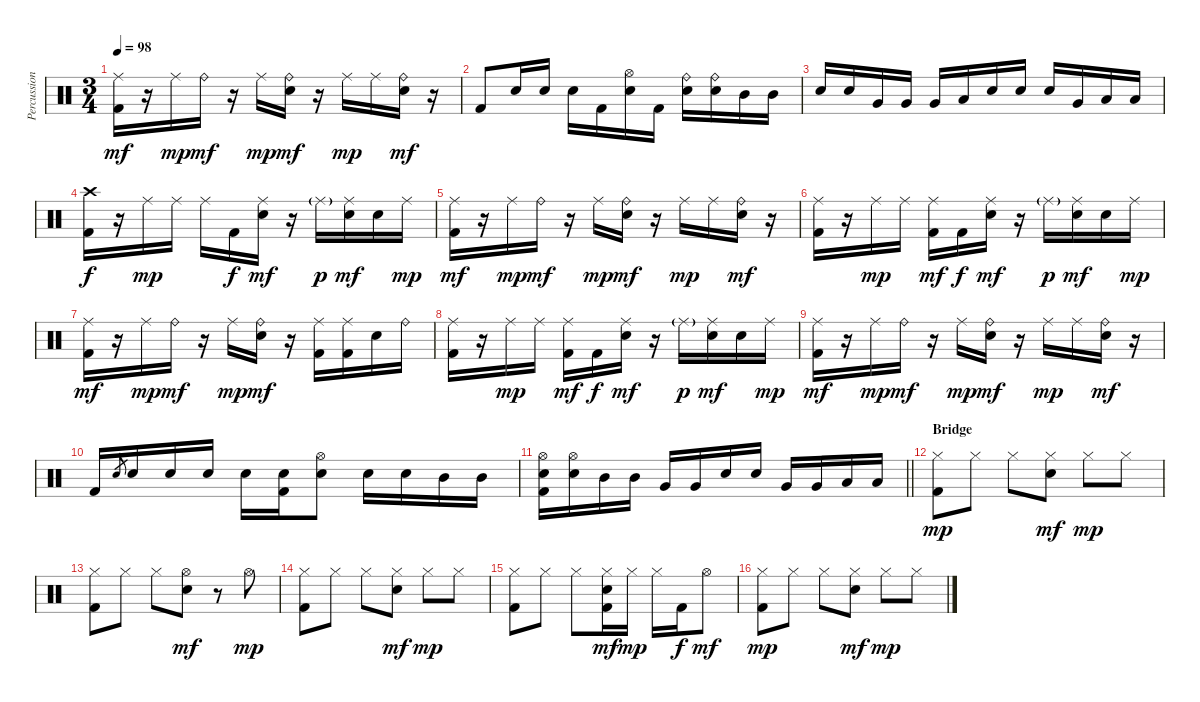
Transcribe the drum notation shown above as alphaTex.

\track ("Percussion" "Percussion") {instrument percussion}
\staff {score}
\articulation defaults
\ts (3 4)
\tempo 98
\clef neutral
\ks c
("Ride (middle)" "Kick (hit) 2").16{dy mf} r.16 "Ride (middle)".16{dy mp} "Ride (bell)".16{dy mf} r.16 "Ride (middle)".16{dy mp} ("Ride (bell)" "Electric Snare (hit)").16{dy mf} r.16 "Ride (middle)".16{dy mp} "Ride (middle)".16 ("Ride (bell)" "Electric Snare (hit)").16{dy mf} r.16 |
"Kick (hit) 2".8 "Electric Snare (hit)".16 "Electric Snare (hit)".16 "Electric Snare (hit)".16 "Kick (hit) 2".16 ("Hi-Hat (open)" "Electric Snare (hit)").16 "Kick (hit) 2".16 ("Ride (bell)" "Electric Snare (hit)").16 ("Ride (bell)" "Electric Snare (hit)").16 "Mid Tom (hit)".16 "Mid Tom (hit)".16 |
"Electric Snare (hit)".16 "Electric Snare (hit)".16 "Very Low Tom (hit)".16 "Very Low Tom (hit)".16 "Very Low Tom (hit)".16 "Low Floor Tom (hit)".16 "Electric Snare (hit)".16 "Electric Snare (hit)".16 "Electric Snare (hit)".16 "Very Low Tom (hit)".16 "Low Floor Tom (hit)".16 "Low Floor Tom (hit)".16 |
("Crash high (hit)" "Kick (hit) 2").16{dy f} r.16 "Ride (middle)".16{dy mp} "Ride (middle)".16 "Ride (middle)".16 "Kick (hit) 2".16{dy f} ("Ride (middle)" "Electric Snare (hit)").16{dy mf} r.16 "Ride (middle)"{g}.16{dy p} ("Ride (middle)" "Electric Snare (hit)").16{dy mf} "Electric Snare (hit)".16 "Ride (middle)".16{dy mp} |
("Ride (middle)" "Kick (hit) 2").16{dy mf} r.16 "Ride (middle)".16{dy mp} "Ride (bell)".16{dy mf} r.16 "Ride (middle)".16{dy mp} ("Ride (bell)" "Electric Snare (hit)").16{dy mf} r.16 "Ride (middle)".16{dy mp} "Ride (middle)".16 ("Ride (bell)" "Electric Snare (hit)").16{dy mf} r.16 |
("Ride (middle)" "Kick (hit) 2").16 r.16 "Ride (middle)".16{dy mp} "Ride (middle)".16 ("Ride (middle)" "Kick (hit) 2").16{dy mf} "Kick (hit) 2".16{dy f} ("Ride (middle)" "Electric Snare (hit)").16{dy mf} r.16 "Ride (middle)"{g}.16{dy p} ("Ride (middle)" "Electric Snare (hit)").16{dy mf} "Electric Snare (hit)".16 "Ride (middle)".16{dy mp} |
("Ride (middle)" "Kick (hit) 2").16{dy mf} r.16 "Ride (middle)".16{dy mp} "Ride (bell)".16{dy mf} r.16 "Ride (middle)".16{dy mp} ("Ride (bell)" "Electric Snare (hit)").16{dy mf} r.16 ("Ride (middle)" "Kick (hit) 2").16 ("Ride (middle)" "Kick (hit) 2").16 "Electric Snare (hit)".16 "Ride (bell)".16 |
("Ride (middle)" "Kick (hit) 2").16 r.16 "Ride (middle)".16{dy mp} "Ride (middle)".16 ("Ride (middle)" "Kick (hit) 2").16{dy mf} "Kick (hit) 2".16{dy f} ("Ride (middle)" "Electric Snare (hit)").16{dy mf} r.16 "Ride (middle)"{g}.16{dy p} ("Ride (middle)" "Electric Snare (hit)").16{dy mf} "Electric Snare (hit)".16 "Ride (middle)".16{dy mp} |
("Ride (middle)" "Kick (hit) 2").16{dy mf} r.16 "Ride (middle)".16{dy mp} "Ride (bell)".16{dy mf} r.16 "Ride (middle)".16{dy mp} ("Ride (bell)" "Electric Snare (hit)").16{dy mf} r.16 "Ride (middle)".16{dy mp} "Ride (middle)".16 ("Ride (bell)" "Electric Snare (hit)").16{dy mf} r.16 |
"Kick (hit) 2".16 "Electric Snare (hit)".8{gr} "Electric Snare (hit)".16 "Electric Snare (hit)".16 "Electric Snare (hit)".16 "Electric Snare (hit)".16 ("Electric Snare (hit)" "Kick (hit) 2").16 ("Hi-Hat (open)" "Electric Snare (hit)").8 "Electric Snare (hit)".16 "Electric Snare (hit)".16 "Mid Tom (hit)".16 "Mid Tom (hit)".16 |
\barLineRight lightlight
("Hi-Hat (open)" "Electric Snare (hit)" "Kick (hit) 2").16 ("Hi-Hat (open)" "Electric Snare (hit)").16 "Mid Tom (hit)".16 "Mid Tom (hit)".16 "Very Low Tom (hit)".16 "Very Low Tom (hit)".16 "Electric Snare (hit)".16 "Electric Snare (hit)".16 "Very Low Tom (hit)".16 "Very Low Tom (hit)".16 "Low Floor Tom (hit)".16 "Low Floor Tom (hit)".16 |
\section ("" "Bridge")
("Hi-Hat (closed)" "Kick (hit) 2").8{dy mp} "Hi-Hat (closed)".8 "Hi-Hat (closed)".8 ("Hi-Hat (closed)" "Electric Snare (hit)").8{dy mf} "Hi-Hat (closed)".8{dy mp} "Hi-Hat (closed)".8 |
("Hi-Hat (closed)" "Kick (hit) 2").8 "Hi-Hat (closed)".8 "Hi-Hat (closed)".8 ("Hi-Hat (open)" "Electric Snare (hit)").8{dy mf} r.8 "Hi-Hat (open)".8{dy mp} |
("Hi-Hat (closed)" "Kick (hit) 2").8 "Hi-Hat (closed)".8 "Hi-Hat (closed)".8 ("Hi-Hat (closed)" "Electric Snare (hit)").8{dy mf} "Hi-Hat (closed)".8{dy mp} "Hi-Hat (closed)".8 |
("Hi-Hat (closed)" "Kick (hit) 2").8 "Hi-Hat (closed)".8 "Hi-Hat (closed)".8 ("Hi-Hat (closed)" "Electric Snare (hit)" "Kick (hit) 2").16{dy mf} "Hi-Hat (closed)".16{dy mp} "Hi-Hat (closed)".16 "Kick (hit) 2".16{dy f} "Hi-Hat (open)".8{dy mf} |
("Hi-Hat (closed)" "Kick (hit) 2").8{dy mp} "Hi-Hat (closed)".8 "Hi-Hat (closed)".8 ("Hi-Hat (closed)" "Electric Snare (hit)").8{dy mf} "Hi-Hat (closed)".8{dy mp} "Hi-Hat (closed)".8
